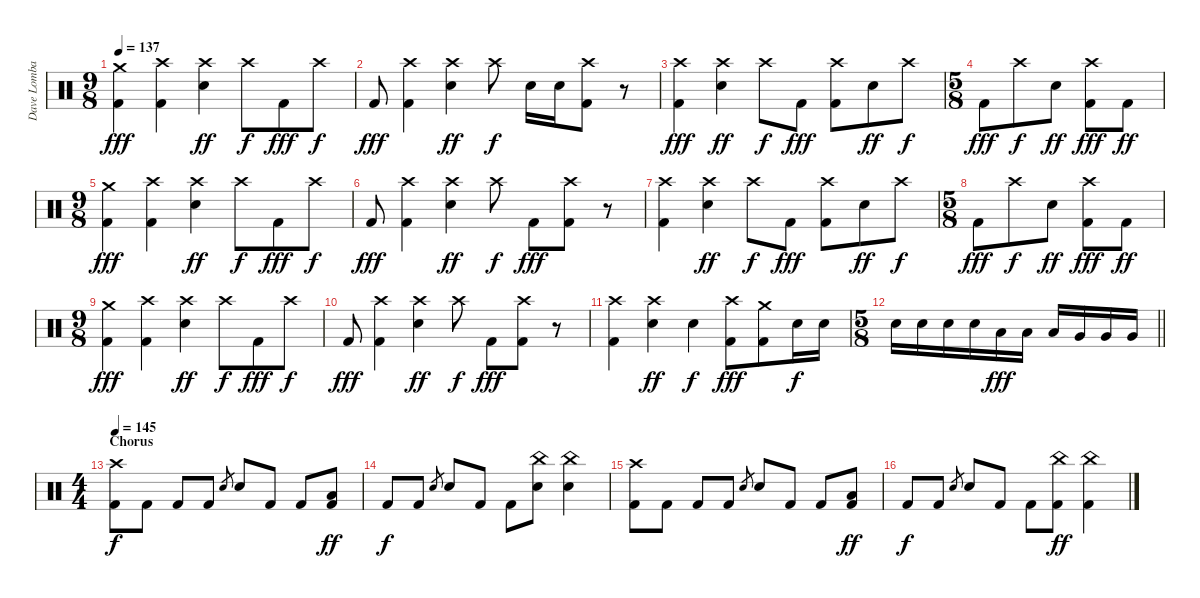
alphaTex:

\track ("Dave Lombardo" "Dave Lomba") {instrument percussion}
\staff {score}
\articulation defaults
\ts (9 8)
\tempo 137
\clef neutral
\ks c
("Crash medium (hit)" "Kick (hit) 2").4{dy fff} ("Crash high (hit)" "Kick (hit) 2").4 ("Crash high (hit)" "Snare (hit) 2").4{dy ff} "Crash high (hit)".8{dy f} "Kick (hit) 2".8{dy fff} "Crash high (hit)".8{dy f} |
"Kick (hit) 2".8{dy fff} ("Crash high (hit)" "Kick (hit) 2").4 ("Crash high (hit)" "Snare (hit) 2").4{dy ff} "Crash high (hit)".8{dy f} "Snare (hit) 2".16 "Snare (hit) 2".16 ("Crash high (hit)" "Kick (hit) 2").8 r.8 |
("Crash high (hit)" "Kick (hit) 2").4{dy fff} ("Crash high (hit)" "Snare (hit) 2").4{dy ff} "Crash high (hit)".8{dy f} "Kick (hit) 2".8{dy fff} ("Crash high (hit)" "Kick (hit) 2").8 "Snare (hit) 2".8{dy ff} "Crash high (hit)".8{dy f} |
\ts (5 8)
"Kick (hit) 2".8{dy fff} "Crash high (hit)".8{dy f} "Snare (hit) 2".8{dy ff} ("Crash high (hit)" "Kick (hit) 2").8{dy fff} "Kick (hit) 2".8{dy ff} |
\ts (9 8)
("Crash medium (hit)" "Kick (hit) 2").4{dy fff} ("Crash high (hit)" "Kick (hit) 2").4 ("Crash high (hit)" "Snare (hit) 2").4{dy ff} "Crash high (hit)".8{dy f} "Kick (hit) 2".8{dy fff} "Crash high (hit)".8{dy f} |
"Kick (hit) 2".8{dy fff} ("Crash high (hit)" "Kick (hit) 2").4 ("Crash high (hit)" "Snare (hit) 2").4{dy ff} "Crash high (hit)".8{dy f} "Kick (hit) 2".8{dy fff} ("Crash high (hit)" "Kick (hit) 2").8 r.8 |
("Crash high (hit)" "Kick (hit) 2").4 ("Crash high (hit)" "Snare (hit) 2").4{dy ff} "Crash high (hit)".8{dy f} "Kick (hit) 2".8{dy fff} ("Crash high (hit)" "Kick (hit) 2").8 "Snare (hit) 2".8{dy ff} "Crash high (hit)".8{dy f} |
\ts (5 8)
"Kick (hit) 2".8{dy fff} "Crash high (hit)".8{dy f} "Snare (hit) 2".8{dy ff} ("Crash high (hit)" "Kick (hit) 2").8{dy fff} "Kick (hit) 2".8{dy ff} |
\ts (9 8)
("Crash medium (hit)" "Kick (hit) 2").4{dy fff} ("Crash high (hit)" "Kick (hit) 2").4 ("Crash high (hit)" "Snare (hit) 2").4{dy ff} "Crash high (hit)".8{dy f} "Kick (hit) 2".8{dy fff} "Crash high (hit)".8{dy f} |
"Kick (hit) 2".8{dy fff} ("Crash high (hit)" "Kick (hit) 2").4 ("Crash high (hit)" "Snare (hit) 2").4{dy ff} "Crash high (hit)".8{dy f} "Kick (hit) 2".8{dy fff} ("Crash high (hit)" "Kick (hit) 2").8 r.8 |
("Crash high (hit)" "Kick (hit) 2").4 ("Crash high (hit)" "Snare (hit) 2").4{dy ff} "Snare (hit) 2".4{dy f} ("Crash high (hit)" "Kick (hit) 2").8{dy fff} ("Crash medium (hit)" "Kick (hit) 2").8 "Snare (hit) 2".16{dy f} "Snare (hit) 2".16 |
\ts (5 8)
\barLineRight lightlight "Snare (hit) 2".16 "Snare (hit) 2".16 "Snare (hit) 2".16 "Snare (hit) 2".16 "Low Tom (hit)".16{dy fff} "Low Tom (hit)".16 "Low Tom (hit)".16 "Very Low Tom (hit)".16 "Very Low Tom (hit)".16 "Very Low Tom (hit)".16
|
\ts (4 4)
\section ("" "Chorus")
\tempo 145
("Crash high (hit)" "Kick (hit) 2").8{dy f} "Kick (hit) 2".8 "Kick (hit) 2".8 "Kick (hit) 2".8 "Snare (hit) 2".8{gr} "Snare (hit) 2".8 "Kick (hit) 2".8 "Kick (hit) 2".8 ("Low Floor Tom (hit)" "Kick (hit) 2").8{dy ff} |
"Kick (hit) 2".8{dy f} "Kick (hit) 2".8 "Snare (hit) 2".8{gr} "Snare (hit) 2".8 "Kick (hit) 2".8 "Kick (hit) 2".8 ("China (hit)" "Snare (hit) 2").8 ("China (hit)" "Snare (hit) 2").4 |
("Crash high (hit)" "Kick (hit) 2").8 "Kick (hit) 2".8 "Kick (hit) 2".8 "Kick (hit) 2".8 "Snare (hit) 2".8{gr} "Snare (hit) 2".8 "Kick (hit) 2".8 "Kick (hit) 2".8 ("Low Floor Tom (hit)" "Kick (hit) 2").8{dy ff} |
"Kick (hit) 2".8{dy f} "Kick (hit) 2".8 "Snare (hit) 2".8{gr} "Snare (hit) 2".8 "Kick (hit) 2".8 "Kick (hit) 2".8 ("China (hit)" "Kick (hit) 2").8{dy ff} ("China (hit)" "Kick (hit) 2").4
